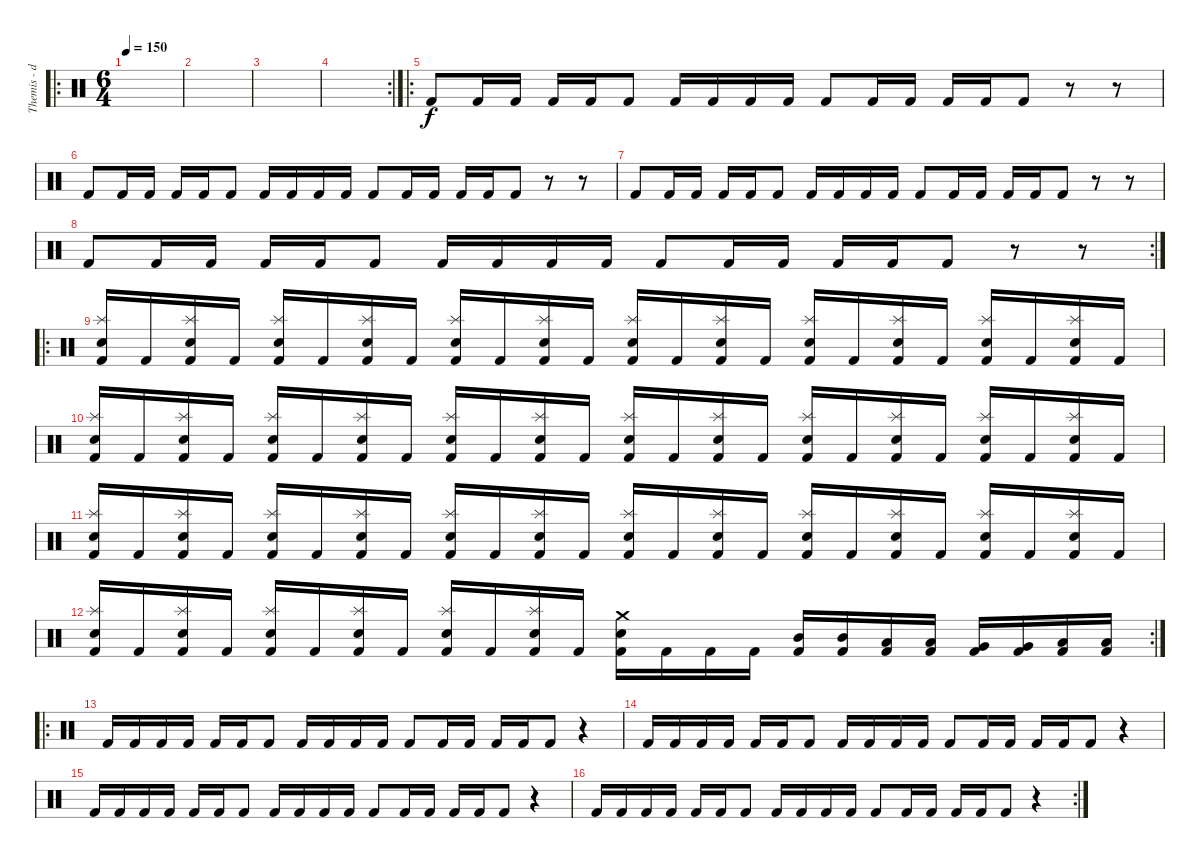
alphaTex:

\track ("Themis - drms" "Themis - d") {instrument percussion}
\staff {score}
\articulation defaults
\ro
\ts (6 4)
\tempo 150
\clef neutral
\ks c
|
|
|
\rc 2
|
\ro "Kick (hit) 2".8 "Kick (hit) 2".16 "Kick (hit) 2".16 "Kick (hit) 2".16 "Kick (hit) 2".16 "Kick (hit) 2".8 "Kick (hit) 2".16 "Kick (hit) 2".16 "Kick (hit) 2".16 "Kick (hit) 2".16 "Kick (hit) 2".8 "Kick (hit) 2".16 "Kick (hit) 2".16 "Kick (hit) 2".16 "Kick (hit) 2".16 "Kick (hit) 2".8
r.8 r.8 |
"Kick (hit) 2".8 "Kick (hit) 2".16 "Kick (hit) 2".16 "Kick (hit) 2".16 "Kick (hit) 2".16 "Kick (hit) 2".8 "Kick (hit) 2".16 "Kick (hit) 2".16 "Kick (hit) 2".16 "Kick (hit) 2".16 "Kick (hit) 2".8 "Kick (hit) 2".16 "Kick (hit) 2".16 "Kick (hit) 2".16 "Kick (hit) 2".16 "Kick (hit) 2".8 r.8 r.8 |
"Kick (hit) 2".8 "Kick (hit) 2".16 "Kick (hit) 2".16 "Kick (hit) 2".16 "Kick (hit) 2".16 "Kick (hit) 2".8 "Kick (hit) 2".16 "Kick (hit) 2".16 "Kick (hit) 2".16 "Kick (hit) 2".16 "Kick (hit) 2".8 "Kick (hit) 2".16 "Kick (hit) 2".16 "Kick (hit) 2".16 "Kick (hit) 2".16 "Kick (hit) 2".8 r.8 r.8 |
\rc 2 "Kick (hit) 2".8 "Kick (hit) 2".16 "Kick (hit) 2".16 "Kick (hit) 2".16 "Kick (hit) 2".16 "Kick (hit) 2".8 "Kick (hit) 2".16 "Kick (hit) 2".16 "Kick (hit) 2".16 "Kick (hit) 2".16 "Kick (hit) 2".8 "Kick (hit) 2".16 "Kick (hit) 2".16 "Kick (hit) 2".16 "Kick (hit) 2".16 "Kick (hit) 2".8
r.8 r.8 |
\ro
("Splash (hit)" "Electric Snare (hit)" "Kick (hit) 2").16 "Kick (hit) 2".16 ("Splash (hit)" "Electric Snare (hit)" "Kick (hit) 2").16 "Kick (hit) 2".16 ("Splash (hit)" "Electric Snare (hit)" "Kick (hit) 2").16 "Kick (hit) 2".16 ("Splash (hit)" "Electric Snare (hit)" "Kick (hit) 2").16 "Kick (hit) 2".16 ("Splash (hit)" "Electric Snare (hit)" "Kick (hit) 2").16 "Kick (hit) 2".16 ("Splash (hit)" "Electric Snare (hit)" "Kick (hit) 2").16 "Kick (hit) 2".16 ("Splash (hit)" "Electric Snare (hit)" "Kick (hit) 2").16 "Kick (hit) 2".16 ("Splash (hit)" "Electric Snare (hit)" "Kick (hit) 2").16 "Kick (hit) 2".16 ("Splash (hit)" "Electric Snare (hit)" "Kick (hit) 2").16 "Kick (hit) 2".16 ("Splash (hit)" "Electric Snare (hit)" "Kick (hit) 2").16 "Kick (hit) 2".16 ("Splash (hit)" "Electric Snare (hit)" "Kick (hit) 2").16 "Kick (hit) 2".16 ("Splash (hit)" "Electric Snare (hit)" "Kick (hit) 2").16 "Kick (hit) 2".16 |
("Splash (hit)" "Electric Snare (hit)" "Kick (hit) 2").16 "Kick (hit) 2".16 ("Splash (hit)" "Electric Snare (hit)" "Kick (hit) 2").16 "Kick (hit) 2".16 ("Splash (hit)" "Electric Snare (hit)" "Kick (hit) 2").16 "Kick (hit) 2".16 ("Splash (hit)" "Electric Snare (hit)" "Kick (hit) 2").16 "Kick (hit) 2".16 ("Splash (hit)" "Electric Snare (hit)" "Kick (hit) 2").16 "Kick (hit) 2".16 ("Splash (hit)" "Electric Snare (hit)" "Kick (hit) 2").16 "Kick (hit) 2".16 ("Splash (hit)" "Electric Snare (hit)" "Kick (hit) 2").16 "Kick (hit) 2".16 ("Splash (hit)" "Electric Snare (hit)" "Kick (hit) 2").16 "Kick (hit) 2".16 ("Splash (hit)" "Electric Snare (hit)" "Kick (hit) 2").16 "Kick (hit) 2".16 ("Splash (hit)" "Electric Snare (hit)" "Kick (hit) 2").16 "Kick (hit) 2".16 ("Splash (hit)" "Electric Snare (hit)" "Kick (hit) 2").16 "Kick (hit) 2".16 ("Splash (hit)" "Electric Snare (hit)" "Kick (hit) 2").16 "Kick (hit) 2".16 |
("Splash (hit)" "Electric Snare (hit)" "Kick (hit) 2").16 "Kick (hit) 2".16 ("Splash (hit)" "Electric Snare (hit)" "Kick (hit) 2").16 "Kick (hit) 2".16 ("Splash (hit)" "Electric Snare (hit)" "Kick (hit) 2").16 "Kick (hit) 2".16 ("Splash (hit)" "Electric Snare (hit)" "Kick (hit) 2").16 "Kick (hit) 2".16 ("Splash (hit)" "Electric Snare (hit)" "Kick (hit) 2").16 "Kick (hit) 2".16 ("Splash (hit)" "Electric Snare (hit)" "Kick (hit) 2").16 "Kick (hit) 2".16 ("Splash (hit)" "Electric Snare (hit)" "Kick (hit) 2").16 "Kick (hit) 2".16 ("Splash (hit)" "Electric Snare (hit)" "Kick (hit) 2").16 "Kick (hit) 2".16 ("Splash (hit)" "Electric Snare (hit)" "Kick (hit) 2").16 "Kick (hit) 2".16 ("Splash (hit)" "Electric Snare (hit)" "Kick (hit) 2").16 "Kick (hit) 2".16 ("Splash (hit)" "Electric Snare (hit)" "Kick (hit) 2").16 "Kick (hit) 2".16 ("Splash (hit)" "Electric Snare (hit)" "Kick (hit) 2").16 "Kick (hit) 2".16 |
\rc 2
("Splash (hit)" "Electric Snare (hit)" "Kick (hit) 2").16 "Kick (hit) 2".16 ("Splash (hit)" "Electric Snare (hit)" "Kick (hit) 2").16 "Kick (hit) 2".16 ("Splash (hit)" "Electric Snare (hit)" "Kick (hit) 2").16 "Kick (hit) 2".16 ("Splash (hit)" "Electric Snare (hit)" "Kick (hit) 2").16 "Kick (hit) 2".16 ("Splash (hit)" "Electric Snare (hit)" "Kick (hit) 2").16 "Kick (hit) 2".16 ("Splash (hit)" "Electric Snare (hit)" "Kick (hit) 2").16 "Kick (hit) 2".16 ("Crash medium (hit)" "Electric Snare (hit)" "Kick (hit) 2").16 "Kick (hit) 2".16 "Kick (hit) 2".16 "Kick (hit) 2".16 ("Mid Tom (hit)" "Kick (hit) 2").16 ("Mid Tom (hit)" "Kick (hit) 2").16 ("Low Tom (hit)" "Kick (hit) 2").16 ("Low Tom (hit)" "Kick (hit) 2").16 ("Very Low Tom (hit)" "Kick (hit) 2").16 ("Very Low Tom (hit)" "Kick (hit) 2").16 ("Low Floor Tom (hit)" "Kick (hit) 2").16 ("Low Floor Tom (hit)" "Kick (hit) 2").16 |
\ro "Kick (hit) 2".16 "Kick (hit) 2".16 "Kick (hit) 2".16 "Kick (hit) 2".16 "Kick (hit) 2".16 "Kick (hit) 2".16 "Kick (hit) 2".8 "Kick (hit) 2".16 "Kick (hit) 2".16 "Kick (hit) 2".16 "Kick (hit) 2".16 "Kick (hit) 2".8 "Kick (hit) 2".16 "Kick (hit) 2".16 "Kick (hit) 2".16 "Kick (hit) 2".16 "Kick (hit) 2".8
r.4 |
"Kick (hit) 2".16 "Kick (hit) 2".16 "Kick (hit) 2".16 "Kick (hit) 2".16 "Kick (hit) 2".16 "Kick (hit) 2".16 "Kick (hit) 2".8 "Kick (hit) 2".16 "Kick (hit) 2".16 "Kick (hit) 2".16 "Kick (hit) 2".16 "Kick (hit) 2".8 "Kick (hit) 2".16 "Kick (hit) 2".16 "Kick (hit) 2".16 "Kick (hit) 2".16 "Kick (hit) 2".8 r.4 |
"Kick (hit) 2".16 "Kick (hit) 2".16 "Kick (hit) 2".16 "Kick (hit) 2".16 "Kick (hit) 2".16 "Kick (hit) 2".16 "Kick (hit) 2".8 "Kick (hit) 2".16 "Kick (hit) 2".16 "Kick (hit) 2".16 "Kick (hit) 2".16 "Kick (hit) 2".8 "Kick (hit) 2".16 "Kick (hit) 2".16 "Kick (hit) 2".16 "Kick (hit) 2".16 "Kick (hit) 2".8 r.4 |
\rc 2 "Kick (hit) 2".16 "Kick (hit) 2".16 "Kick (hit) 2".16 "Kick (hit) 2".16 "Kick (hit) 2".16 "Kick (hit) 2".16 "Kick (hit) 2".8 "Kick (hit) 2".16 "Kick (hit) 2".16 "Kick (hit) 2".16 "Kick (hit) 2".16 "Kick (hit) 2".8 "Kick (hit) 2".16 "Kick (hit) 2".16 "Kick (hit) 2".16 "Kick (hit) 2".16 "Kick (hit) 2".8
r.4
